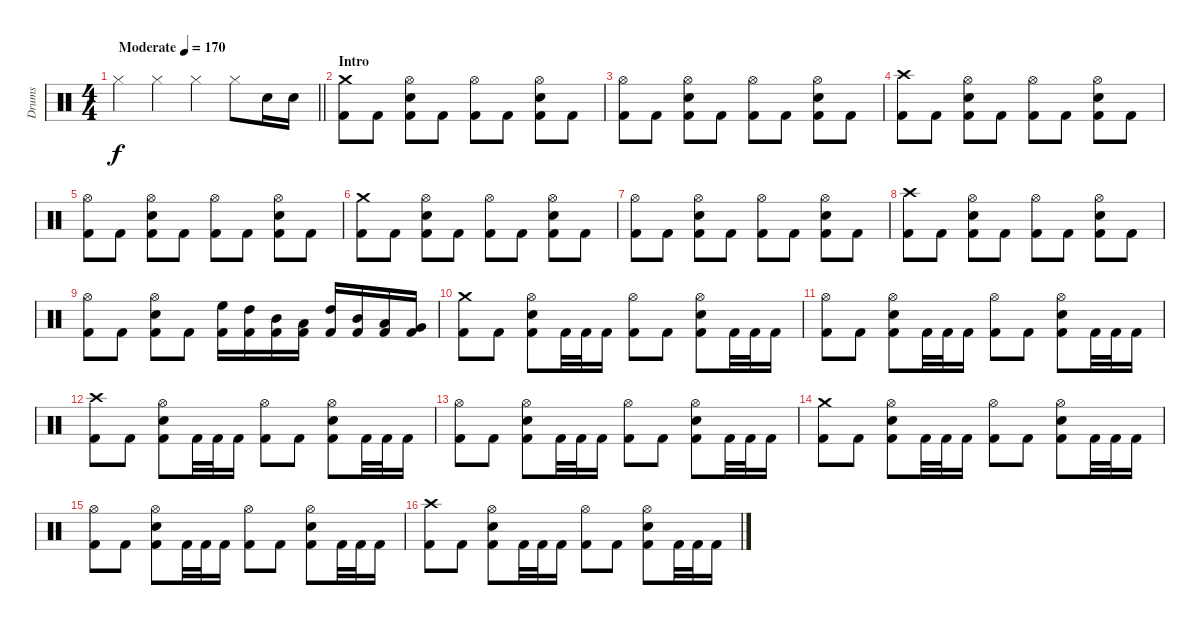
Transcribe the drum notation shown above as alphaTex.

\track ("Drums" "Drums") {instrument percussion}
\staff {score}
\articulation defaults
\ts (4 4)
\tempo (170 "Moderate")
\clef neutral
\barLineRight lightlight
\ks c "Hi-Hat (closed)".4{dy f} "Hi-Hat (closed)".4 "Hi-Hat (closed)".4 "Hi-Hat (closed)".8 "Snare (hit) 2".16 "Snare (hit) 2".16
|
\section ("" "Intro")
("Kick (hit) 2" "Crash medium (hit)").8 "Kick (hit) 2".8 ("Kick (hit) 2" "Snare (hit) 2" "Hi-Hat (open)").8 "Kick (hit) 2".8 ("Kick (hit) 2" "Hi-Hat (open)").8 "Kick (hit) 2".8 ("Kick (hit) 2" "Snare (hit) 2" "Hi-Hat (open)").8 "Kick (hit) 2".8 |
("Kick (hit) 2" "Hi-Hat (open)").8 "Kick (hit) 2".8 ("Kick (hit) 2" "Snare (hit) 2" "Hi-Hat (open)").8 "Kick (hit) 2".8 ("Kick (hit) 2" "Hi-Hat (open)").8 "Kick (hit) 2".8 ("Kick (hit) 2" "Snare (hit) 2" "Hi-Hat (open)").8 "Kick (hit) 2".8 |
("Kick (hit) 2" "Crash high (hit)").8 "Kick (hit) 2".8 ("Kick (hit) 2" "Snare (hit) 2" "Hi-Hat (open)").8 "Kick (hit) 2".8 ("Kick (hit) 2" "Hi-Hat (open)").8 "Kick (hit) 2".8 ("Kick (hit) 2" "Snare (hit) 2" "Hi-Hat (open)").8 "Kick (hit) 2".8 |
("Kick (hit) 2" "Hi-Hat (open)").8 "Kick (hit) 2".8 ("Kick (hit) 2" "Snare (hit) 2" "Hi-Hat (open)").8 "Kick (hit) 2".8 ("Kick (hit) 2" "Hi-Hat (open)").8 "Kick (hit) 2".8 ("Kick (hit) 2" "Snare (hit) 2" "Hi-Hat (open)").8 "Kick (hit) 2".8 |
("Kick (hit) 2" "Crash medium (hit)").8 "Kick (hit) 2".8 ("Kick (hit) 2" "Snare (hit) 2" "Hi-Hat (open)").8 "Kick (hit) 2".8 ("Kick (hit) 2" "Hi-Hat (open)").8 "Kick (hit) 2".8 ("Kick (hit) 2" "Snare (hit) 2" "Hi-Hat (open)").8 "Kick (hit) 2".8 |
("Kick (hit) 2" "Hi-Hat (open)").8 "Kick (hit) 2".8 ("Kick (hit) 2" "Snare (hit) 2" "Hi-Hat (open)").8 "Kick (hit) 2".8 ("Kick (hit) 2" "Hi-Hat (open)").8 "Kick (hit) 2".8 ("Kick (hit) 2" "Snare (hit) 2" "Hi-Hat (open)").8 "Kick (hit) 2".8 |
("Kick (hit) 2" "Crash high (hit)").8 "Kick (hit) 2".8 ("Kick (hit) 2" "Snare (hit) 2" "Hi-Hat (open)").8 "Kick (hit) 2".8 ("Kick (hit) 2" "Hi-Hat (open)").8 "Kick (hit) 2".8 ("Kick (hit) 2" "Snare (hit) 2" "Hi-Hat (open)").8 "Kick (hit) 2".8 |
("Kick (hit) 2" "Hi-Hat (open)").8 "Kick (hit) 2".8 ("Kick (hit) 2" "Snare (hit) 2" "Hi-Hat (open)").8 "Kick (hit) 2".8 ("Kick (hit) 2" "High Floor Tom (hit)").16 ("Kick (hit) 2" "High Tom (hit)").16 ("Kick (hit) 2" "Mid Tom (hit)").16 ("Kick (hit) 2" "Low Tom (hit)").16 ("Kick (hit) 2" "High Tom (hit)").16 ("Kick (hit) 2" "Mid Tom (hit)").16 ("Kick (hit) 2" "Low Tom (hit)").16 ("Kick (hit) 2" "Very Low Tom (hit)").16 |
("Kick (hit) 2" "Crash medium (hit)").8 "Kick (hit) 2".8 ("Kick (hit) 2" "Snare (hit) 2" "Hi-Hat (open)").8 "Kick (hit) 2".32 "Kick (hit) 2".32 "Kick (hit) 2".16 ("Kick (hit) 2" "Hi-Hat (open)").8 "Kick (hit) 2".8 ("Kick (hit) 2" "Snare (hit) 2" "Hi-Hat (open)").8 "Kick (hit) 2".32 "Kick (hit) 2".32 "Kick (hit) 2".16 |
("Kick (hit) 2" "Hi-Hat (open)").8 "Kick (hit) 2".8 ("Kick (hit) 2" "Snare (hit) 2" "Hi-Hat (open)").8 "Kick (hit) 2".32 "Kick (hit) 2".32 "Kick (hit) 2".16 ("Kick (hit) 2" "Hi-Hat (open)").8 "Kick (hit) 2".8 ("Kick (hit) 2" "Snare (hit) 2" "Hi-Hat (open)").8 "Kick (hit) 2".32 "Kick (hit) 2".32 "Kick (hit) 2".16 |
("Kick (hit) 2" "Crash high (hit)").8 "Kick (hit) 2".8 ("Kick (hit) 2" "Snare (hit) 2" "Hi-Hat (open)").8 "Kick (hit) 2".32 "Kick (hit) 2".32 "Kick (hit) 2".16 ("Kick (hit) 2" "Hi-Hat (open)").8 "Kick (hit) 2".8 ("Kick (hit) 2" "Snare (hit) 2" "Hi-Hat (open)").8 "Kick (hit) 2".32 "Kick (hit) 2".32 "Kick (hit) 2".16 |
("Kick (hit) 2" "Hi-Hat (open)").8 "Kick (hit) 2".8 ("Kick (hit) 2" "Snare (hit) 2" "Hi-Hat (open)").8 "Kick (hit) 2".32 "Kick (hit) 2".32 "Kick (hit) 2".16 ("Kick (hit) 2" "Hi-Hat (open)").8 "Kick (hit) 2".8 ("Kick (hit) 2" "Snare (hit) 2" "Hi-Hat (open)").8 "Kick (hit) 2".32 "Kick (hit) 2".32 "Kick (hit) 2".16 |
("Kick (hit) 2" "Crash medium (hit)").8 "Kick (hit) 2".8 ("Kick (hit) 2" "Snare (hit) 2" "Hi-Hat (open)").8 "Kick (hit) 2".32 "Kick (hit) 2".32 "Kick (hit) 2".16 ("Kick (hit) 2" "Hi-Hat (open)").8 "Kick (hit) 2".8 ("Kick (hit) 2" "Snare (hit) 2" "Hi-Hat (open)").8 "Kick (hit) 2".32 "Kick (hit) 2".32 "Kick (hit) 2".16 |
("Kick (hit) 2" "Hi-Hat (open)").8 "Kick (hit) 2".8 ("Kick (hit) 2" "Snare (hit) 2" "Hi-Hat (open)").8 "Kick (hit) 2".32 "Kick (hit) 2".32 "Kick (hit) 2".16 ("Kick (hit) 2" "Hi-Hat (open)").8 "Kick (hit) 2".8 ("Kick (hit) 2" "Snare (hit) 2" "Hi-Hat (open)").8 "Kick (hit) 2".32 "Kick (hit) 2".32 "Kick (hit) 2".16 |
("Kick (hit) 2" "Crash high (hit)").8 "Kick (hit) 2".8 ("Kick (hit) 2" "Snare (hit) 2" "Hi-Hat (open)").8 "Kick (hit) 2".32 "Kick (hit) 2".32 "Kick (hit) 2".16 ("Kick (hit) 2" "Hi-Hat (open)").8 "Kick (hit) 2".8 ("Kick (hit) 2" "Snare (hit) 2" "Hi-Hat (open)").8 "Kick (hit) 2".32 "Kick (hit) 2".32 "Kick (hit) 2".16
